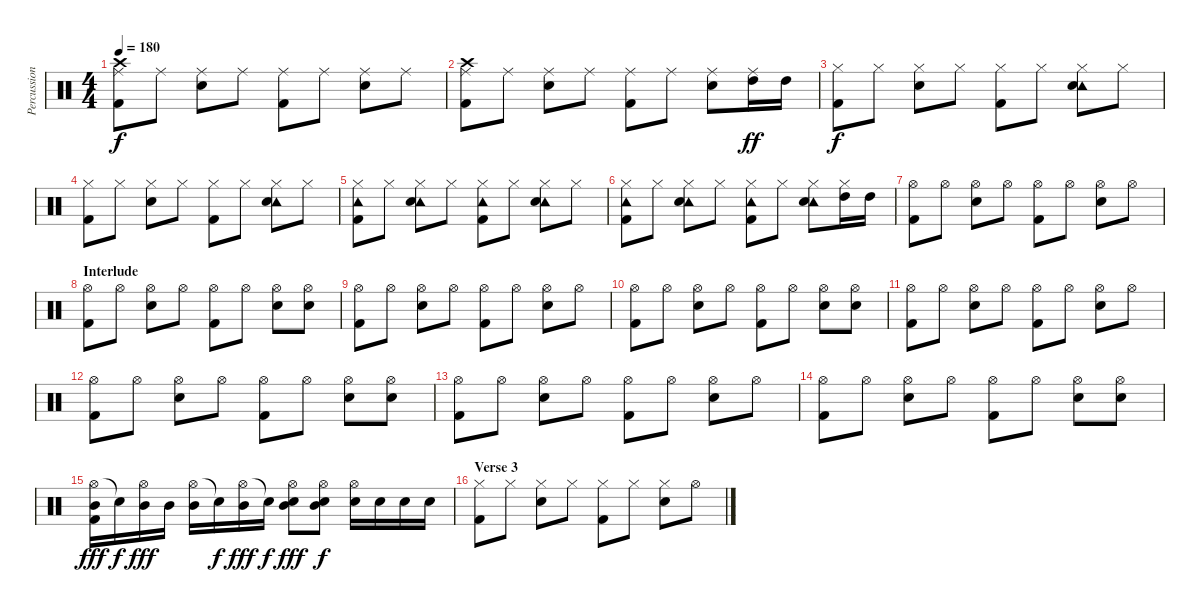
\track ("Percussion" "Percussion") {instrument percussion}
\staff {score}
\articulation defaults
\ts (4 4)
\tempo 180
\clef neutral
\ks c
("Crash high (hit)" "Ride (middle)" "Kick (hit) 2").8{dy f} "Ride (middle)".8 ("Ride (middle)" "Electric Snare (hit)").8 "Ride (middle)".8 ("Ride (middle)" "Kick (hit) 2").8 "Ride (middle)".8 ("Ride (middle)" "Electric Snare (hit)").8 "Ride (middle)".8 |
("Crash high (hit)" "Ride (middle)" "Kick (hit) 2").8 "Ride (middle)".8 ("Ride (middle)" "Electric Snare (hit)").8 "Ride (middle)".8 ("Ride (middle)" "Kick (hit) 2").8 "Ride (middle)".8 ("Ride (middle)" "Electric Snare (hit)").8 ("Ride (middle)" "High Tom (hit)").16{dy ff} "High Tom (hit)".16 |
("Hi-Hat (closed)" "Kick (hit) 2").8{dy f} "Hi-Hat (closed)".8 ("Hi-Hat (closed)" "Electric Snare (hit)").8 "Hi-Hat (closed)".8 ("Hi-Hat (closed)" "Kick (hit) 2").8 "Hi-Hat (closed)".8 ("Tambourine (hit)" "Hi-Hat (closed)" "Electric Snare (hit)").8 "Hi-Hat (closed)".8 |
("Hi-Hat (closed)" "Kick (hit) 2").8 "Hi-Hat (closed)".8 ("Hi-Hat (closed)" "Electric Snare (hit)").8 "Hi-Hat (closed)".8 ("Hi-Hat (closed)" "Kick (hit) 2").8 "Hi-Hat (closed)".8 ("Tambourine (hit)" "Hi-Hat (closed)" "Electric Snare (hit)").8 "Hi-Hat (closed)".8 |
("Tambourine (hit)" "Hi-Hat (closed)" "Kick (hit) 2").8 "Hi-Hat (closed)".8 ("Tambourine (hit)" "Hi-Hat (closed)" "Electric Snare (hit)").8 "Hi-Hat (closed)".8 ("Tambourine (hit)" "Hi-Hat (closed)" "Kick (hit) 2").8 "Hi-Hat (closed)".8 ("Tambourine (hit)" "Hi-Hat (closed)" "Electric Snare (hit)").8 "Hi-Hat (closed)".8 |
("Tambourine (hit)" "Hi-Hat (closed)" "Kick (hit) 2").8 "Hi-Hat (closed)".8 ("Tambourine (hit)" "Hi-Hat (closed)" "Electric Snare (hit)").8 "Hi-Hat (closed)".8 ("Tambourine (hit)" "Hi-Hat (closed)" "Kick (hit) 2").8 "Hi-Hat (closed)".8 ("Tambourine (hit)" "Hi-Hat (closed)" "Electric Snare (hit)").8 ("Hi-Hat (closed)" "High Tom (hit)").16 "High Tom (hit)".16 |
("Hi-Hat (open)" "Kick (hit) 2").8 "Hi-Hat (open)".8 ("Hi-Hat (open)" "Electric Snare (hit)").8 "Hi-Hat (open)".8 ("Hi-Hat (open)" "Kick (hit) 2").8 "Hi-Hat (open)".8 ("Hi-Hat (open)" "Electric Snare (hit)").8 "Hi-Hat (open)".8 |
\section ("" "Interlude")
("Hi-Hat (open)" "Kick (hit) 2").8 "Hi-Hat (open)".8 ("Hi-Hat (open)" "Electric Snare (hit)").8 "Hi-Hat (open)".8 ("Hi-Hat (open)" "Kick (hit) 2").8 "Hi-Hat (open)".8 ("Hi-Hat (open)" "Electric Snare (hit)").8 ("Hi-Hat (open)" "Electric Snare (hit)").8 |
("Hi-Hat (open)" "Kick (hit) 2").8 "Hi-Hat (open)".8 ("Hi-Hat (open)" "Electric Snare (hit)").8 "Hi-Hat (open)".8 ("Hi-Hat (open)" "Kick (hit) 2").8 "Hi-Hat (open)".8 ("Hi-Hat (open)" "Electric Snare (hit)").8 "Hi-Hat (open)".8 |
("Hi-Hat (open)" "Kick (hit) 2").8 "Hi-Hat (open)".8 ("Hi-Hat (open)" "Electric Snare (hit)").8 "Hi-Hat (open)".8 ("Hi-Hat (open)" "Kick (hit) 2").8 "Hi-Hat (open)".8 ("Hi-Hat (open)" "Electric Snare (hit)").8 ("Hi-Hat (open)" "Electric Snare (hit)").8 |
("Hi-Hat (open)" "Kick (hit) 2").8 "Hi-Hat (open)".8 ("Hi-Hat (open)" "Electric Snare (hit)").8 "Hi-Hat (open)".8 ("Hi-Hat (open)" "Kick (hit) 2").8 "Hi-Hat (open)".8 ("Hi-Hat (open)" "Electric Snare (hit)").8 "Hi-Hat (open)".8 |
("Hi-Hat (open)" "Kick (hit) 2").8 "Hi-Hat (open)".8 ("Hi-Hat (open)" "Electric Snare (hit)").8 "Hi-Hat (open)".8 ("Hi-Hat (open)" "Kick (hit) 2").8 "Hi-Hat (open)".8 ("Hi-Hat (open)" "Electric Snare (hit)").8 ("Hi-Hat (open)" "Electric Snare (hit)").8 |
("Hi-Hat (open)" "Kick (hit) 2").8 "Hi-Hat (open)".8 ("Hi-Hat (open)" "Electric Snare (hit)").8 "Hi-Hat (open)".8 ("Hi-Hat (open)" "Kick (hit) 2").8 "Hi-Hat (open)".8 ("Hi-Hat (open)" "Electric Snare (hit)").8 "Hi-Hat (open)".8 |
("Hi-Hat (open)" "Kick (hit) 2").8 "Hi-Hat (open)".8 ("Hi-Hat (open)" "Electric Snare (hit)").8 "Hi-Hat (open)".8 ("Hi-Hat (open)" "Kick (hit) 2").8 "Hi-Hat (open)".8 ("Hi-Hat (open)" "Electric Snare (hit)").8 ("Hi-Hat (open)" "Electric Snare (hit)").8 |
("Hi-Hat (open)" "Mid Tom (hit)" "Kick (hit) 2").16{dy fff} "Electric Snare (hit)"{t}.16{dy f} ("Hi-Hat (open)" "Mid Tom (hit)").16{dy fff} "Mid Tom (hit)".16 ("Hi-Hat (open)" "Mid Tom (hit)").16 "Snare (hit)"{t}.16{dy f} ("Hi-Hat (open)" "Mid Tom (hit)").16{dy fff} "Snare (hit)"{t}.16{dy f} ("Hi-Hat (open)" "Electric Snare (hit)" "Mid Tom (hit)").8{dy fff} ("Hi-Hat (open)" "Electric Snare (hit)" "Mid Tom (hit)").8{dy f} ("Hi-Hat (open)" "Electric Snare (hit)").16 "Electric Snare (hit)".16 "Electric Snare (hit)".16 "Electric Snare (hit)".16 |
\section ("" "Verse 3")
("Hi-Hat (closed)" "Kick (hit) 2").8 "Hi-Hat (closed)".8 ("Hi-Hat (closed)" "Electric Snare (hit)").8 "Hi-Hat (closed)".8 ("Hi-Hat (closed)" "Kick (hit) 2").8 "Hi-Hat (closed)".8 ("Hi-Hat (closed)" "Electric Snare (hit)").8 "Hi-Hat (open)".8
